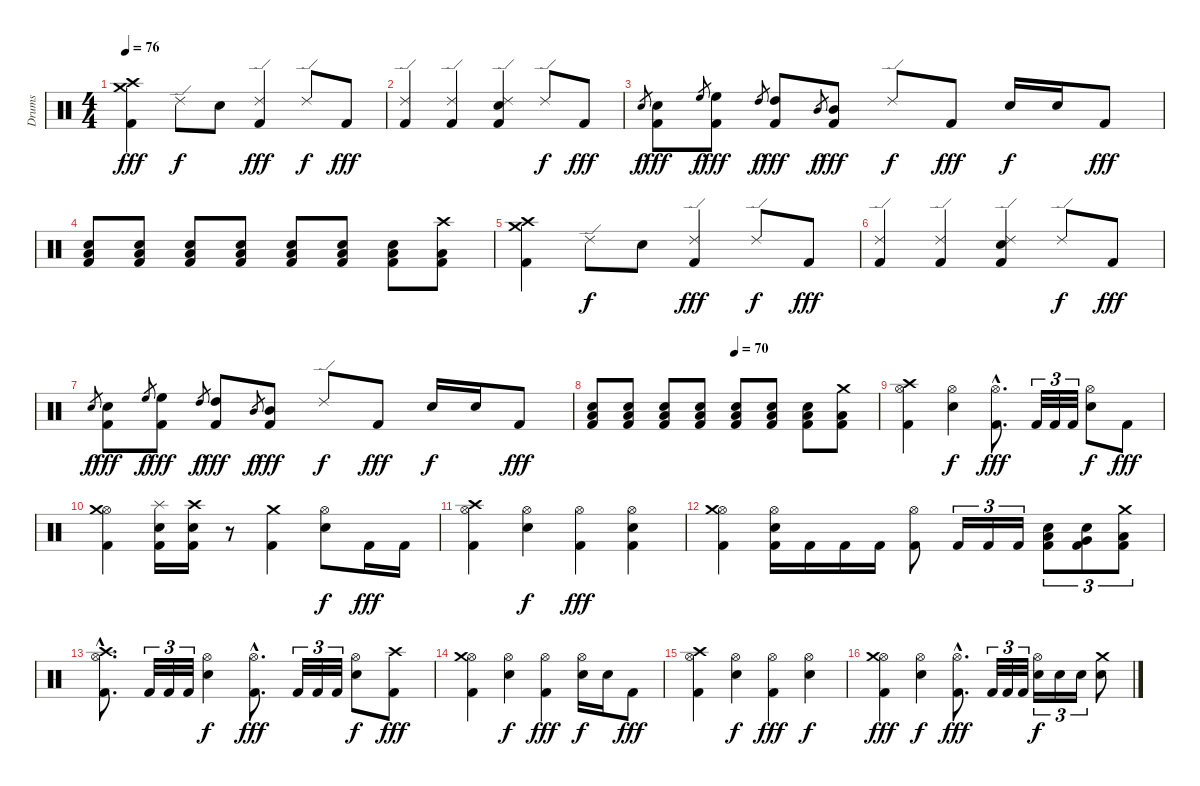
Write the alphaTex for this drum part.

\track ("Drums" "Drums") {instrument percussion}
\staff {score}
\articulation defaults
\ts (4 4)
\tempo 76
\clef neutral
\ks c
("Crash medium (hit)" "Crash high (hit)" "Kick (hit) 2").4{dy fff} "Ride (edge) 2".8{dy f} "Snare (hit) 2".8 ("Ride (edge) 2" "Kick (hit) 2").4{dy fff} "Ride (edge) 2".8{dy f} "Kick (hit) 2".8{dy fff} |
("Ride (edge) 2" "Kick (hit) 2").4 ("Ride (edge) 2" "Kick (hit) 2").4 ("Ride (edge) 2" "Snare (hit) 2" "Kick (hit) 2").4 "Ride (edge) 2".8{dy f} "Kick (hit) 2".8{dy fff} |
"Snare (hit) 2".8{gr dy f} ("Snare (hit) 2" "Kick (hit) 2").8{dy fff} "High Floor Tom (hit)".8{gr dy f} ("High Floor Tom (hit)" "Kick (hit) 2").8{dy fff} "High Tom (hit)".8{gr dy f} ("High Tom (hit)" "Kick (hit) 2").8{dy fff} "Mid Tom (hit)".8{gr dy f} ("Mid Tom (hit)" "Kick (hit) 2").8{dy fff} "Ride (edge) 2".8{dy f} "Kick (hit) 2".8{dy fff} "Snare (hit) 2".16{dy f} "Snare (hit) 2".16 "Kick (hit) 2".8{dy fff} |
("Low Floor Tom (hit)" "Snare (hit) 2" "Kick (hit) 2").8 ("Low Floor Tom (hit)" "Snare (hit) 2" "Kick (hit) 2").8 ("Low Floor Tom (hit)" "Snare (hit) 2" "Kick (hit) 2").8 ("Low Floor Tom (hit)" "Snare (hit) 2" "Kick (hit) 2").8 ("Low Floor Tom (hit)" "Snare (hit) 2" "Kick (hit) 2").8 ("Low Floor Tom (hit)" "Snare (hit) 2" "Kick (hit) 2").8 ("Low Floor Tom (hit)" "Snare (hit) 2" "Kick (hit) 2").8 ("Crash high (hit)" "Low Floor Tom (hit)" "Kick (hit) 2").8 |
("Crash medium (hit)" "Crash high (hit)" "Kick (hit) 2").4 "Ride (edge) 2".8{dy f} "Snare (hit) 2".8 ("Ride (edge) 2" "Kick (hit) 2").4{dy fff} "Ride (edge) 2".8{dy f} "Kick (hit) 2".8{dy fff} |
("Ride (edge) 2" "Kick (hit) 2").4 ("Ride (edge) 2" "Kick (hit) 2").4 ("Ride (edge) 2" "Snare (hit) 2" "Kick (hit) 2").4 "Ride (edge) 2".8{dy f} "Kick (hit) 2".8{dy fff} |
"Snare (hit) 2".8{gr dy f} ("Snare (hit) 2" "Kick (hit) 2").8{dy fff} "High Floor Tom (hit)".8{gr dy f} ("High Floor Tom (hit)" "Kick (hit) 2").8{dy fff} "High Tom (hit)".8{gr dy f} ("High Tom (hit)" "Kick (hit) 2").8{dy fff} "Mid Tom (hit)".8{gr dy f} ("Mid Tom (hit)" "Kick (hit) 2").8{dy fff} "Ride (edge) 2".8{dy f} "Kick (hit) 2".8{dy fff} "Snare (hit) 2".16{dy f} "Snare (hit) 2".16 "Kick (hit) 2".8{dy fff} |
\tempo (70 0.5)
("Low Floor Tom (hit)" "Snare (hit) 2" "Kick (hit) 2").8 ("Low Floor Tom (hit)" "Snare (hit) 2" "Kick (hit) 2").8 ("Low Floor Tom (hit)" "Snare (hit) 2" "Kick (hit) 2").8 ("Low Floor Tom (hit)" "Snare (hit) 2" "Kick (hit) 2").8 ("Low Floor Tom (hit)" "Snare (hit) 2" "Kick (hit) 2").8 ("Low Floor Tom (hit)" "Snare (hit) 2" "Kick (hit) 2").8 ("Low Floor Tom (hit)" "Snare (hit) 2" "Kick (hit) 2").8 ("Crash medium (hit)" "Low Floor Tom (hit)" "Kick (hit) 2").8 |
("Hi-Hat (open)" "Crash high (hit)" "Kick (hit) 2").4 ("Hi-Hat (open)" "Snare (hit) 2").4{dy f} ("Hi-Hat (open)"{hac} "Kick (hit) 2"{hac}).8{d dy fff} "Kick (hit) 2".32{tu (3 2)} "Kick (hit) 2".32{tu (3 2)} "Kick (hit) 2".32{tu (3 2)} ("Hi-Hat (open)" "Snare (hit) 2").8{dy f} "Kick (hit) 2".8{dy fff} |
("Hi-Hat (open)" "Crash medium (hit)" "Kick (hit) 2").4 ("Splash (hit)" "Snare (hit) 2" "Kick (hit) 2").16 ("Crash high (hit)" "Snare (hit) 2" "Kick (hit) 2").16 r.8 ("Crash medium (hit)" "Kick (hit) 2").4 ("Hi-Hat (open)" "Snare (hit) 2").8{dy f} "Kick (hit) 2".16{dy fff} "Kick (hit) 2".16 |
("Hi-Hat (open)" "Crash high (hit)" "Kick (hit) 2").4 ("Hi-Hat (open)" "Snare (hit) 2").4{dy f} ("Hi-Hat (open)" "Kick (hit) 2").4{dy fff} ("Hi-Hat (open)" "Snare (hit) 2" "Kick (hit) 2").4 |
("Hi-Hat (open)" "Crash medium (hit)" "Kick (hit) 2").4 ("Hi-Hat (open)" "Snare (hit) 2" "Kick (hit) 2").16 "Kick (hit) 2".16 "Kick (hit) 2".16 "Kick (hit) 2".16 ("Hi-Hat (open)" "Kick (hit) 2").8 "Kick (hit) 2".16{tu (3 2)} "Kick (hit) 2".16{tu (3 2)} "Kick (hit) 2".16{tu (3 2)} ("Low Tom (hit)" "Snare (hit) 2" "Kick (hit) 2").8{tu (3 2)} ("Very Low Tom (hit)" "Snare (hit) 2" "Kick (hit) 2").8{tu (3 2)} ("Crash medium (hit)" "Low Floor Tom (hit)" "Kick (hit) 2").8{tu (3 2)} |
("Hi-Hat (open)"{hac} "Crash high (hit)"{hac} "Kick (hit) 2"{hac}).8{d} "Kick (hit) 2".32{tu (3 2)} "Kick (hit) 2".32{tu (3 2)} "Kick (hit) 2".32{tu (3 2)} ("Hi-Hat (open)" "Snare (hit) 2").4{dy f} ("Hi-Hat (open)"{hac} "Kick (hit) 2"{hac}).8{d dy fff} "Kick (hit) 2".32{tu (3 2)} "Kick (hit) 2".32{tu (3 2)} "Kick (hit) 2".32{tu (3 2)} ("Hi-Hat (open)" "Snare (hit) 2").8{dy f} ("Crash high (hit)" "Kick (hit) 2").8{dy fff} |
("Hi-Hat (open)" "Crash medium (hit)" "Kick (hit) 2").4 ("Hi-Hat (open)" "Snare (hit) 2").4{dy f} ("Hi-Hat (open)" "Kick (hit) 2").4{dy fff} ("Hi-Hat (open)" "Snare (hit) 2").16{dy f} "Snare (hit) 2".16 "Kick (hit) 2".8{dy fff} |
("Hi-Hat (open)" "Crash high (hit)" "Kick (hit) 2").4 ("Hi-Hat (open)" "Snare (hit) 2").4{dy f} ("Hi-Hat (open)" "Kick (hit) 2").4{dy fff} ("Hi-Hat (open)" "Snare (hit) 2").4{dy f} |
("Hi-Hat (open)" "Crash medium (hit)" "Kick (hit) 2").4{dy fff} ("Hi-Hat (open)" "Snare (hit) 2").4{dy f} ("Hi-Hat (open)"{hac} "Kick (hit) 2"{hac}).8{d dy fff} "Kick (hit) 2".32{tu (3 2)} "Kick (hit) 2".32{tu (3 2)} "Kick (hit) 2".32{tu (3 2)} ("Hi-Hat (open)" "Snare (hit) 2").16{tu (3 2) dy f} "Snare (hit) 2".16{tu (3 2)} "Snare (hit) 2".16{tu (3 2)} ("Crash medium (hit)" "Snare (hit) 2").8
